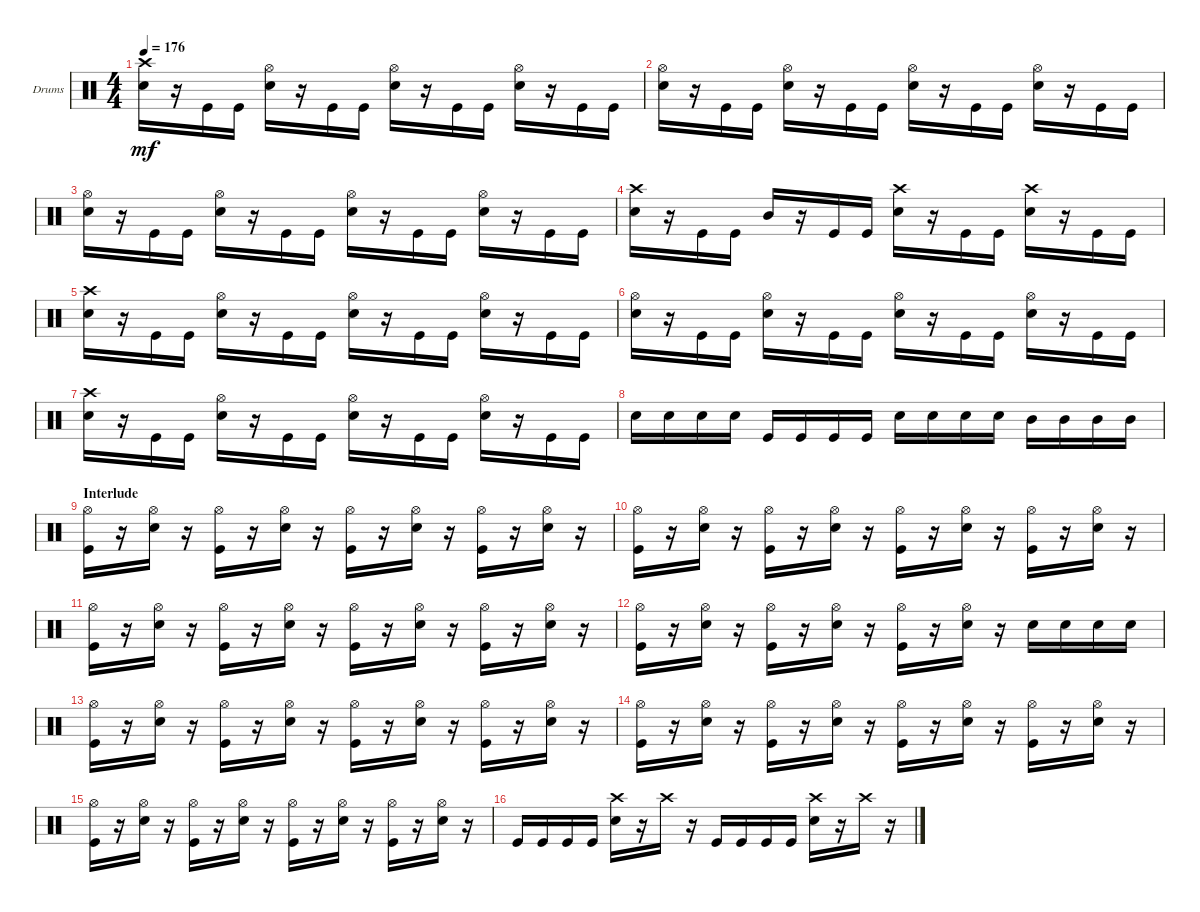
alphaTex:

\bracketExtendMode groupsimilarinstruments
\firstSystemTrackNameOrientation horizontal
\otherSystemsTrackNameOrientation horizontal
\track ("Drums" "Drums") {instrument percussion}
\staff {score}
\articulation defaults
\ts (4 4)
\tempo 176
\clef neutral
\ks c
("Snare (hit) 2" "Crash high (hit)").16{dy mf} r.16 "Kick (hit)".16 "Kick (hit)".16 ("Snare (hit) 2" "Hi-Hat (open)").16 r.16 "Kick (hit)".16 "Kick (hit)".16 ("Snare (hit) 2" "Hi-Hat (open)").16 r.16 "Kick (hit)".16 "Kick (hit)".16 ("Snare (hit) 2" "Hi-Hat (open)").16 r.16 "Kick (hit)".16 "Kick (hit)".16 |
("Snare (hit) 2" "Hi-Hat (open)").16 r.16 "Kick (hit)".16 "Kick (hit)".16 ("Snare (hit) 2" "Hi-Hat (open)").16 r.16 "Kick (hit)".16 "Kick (hit)".16 ("Snare (hit) 2" "Hi-Hat (open)").16 r.16 "Kick (hit)".16 "Kick (hit)".16 ("Snare (hit) 2" "Hi-Hat (open)").16 r.16 "Kick (hit)".16 "Kick (hit)".16 |
("Snare (hit) 2" "Hi-Hat (open)").16 r.16 "Kick (hit)".16 "Kick (hit)".16 ("Snare (hit) 2" "Hi-Hat (open)").16 r.16 "Kick (hit)".16 "Kick (hit)".16 ("Snare (hit) 2" "Hi-Hat (open)").16 r.16 "Kick (hit)".16 "Kick (hit)".16 ("Snare (hit) 2" "Hi-Hat (open)").16 r.16 "Kick (hit)".16 "Kick (hit)".16 |
("Snare (hit) 2" "Crash high (hit)").16 r.16 "Kick (hit)".16 "Kick (hit)".16 "Mid Tom (hit)".16 r.16 "Kick (hit)".16 "Kick (hit)".16 ("Snare (hit) 2" "Crash high (hit)").16 r.16 "Kick (hit)".16 "Kick (hit)".16 ("Snare (hit) 2" "Crash high (hit)").16 r.16 "Kick (hit)".16 "Kick (hit)".16 |
("Snare (hit) 2" "Crash high (hit)").16 r.16 "Kick (hit)".16 "Kick (hit)".16 ("Snare (hit) 2" "Hi-Hat (open)").16 r.16 "Kick (hit)".16 "Kick (hit)".16 ("Snare (hit) 2" "Hi-Hat (open)").16 r.16 "Kick (hit)".16 "Kick (hit)".16 ("Snare (hit) 2" "Hi-Hat (open)").16 r.16 "Kick (hit)".16 "Kick (hit)".16 |
("Snare (hit) 2" "Hi-Hat (open)").16 r.16 "Kick (hit)".16 "Kick (hit)".16 ("Snare (hit) 2" "Hi-Hat (open)").16 r.16 "Kick (hit)".16 "Kick (hit)".16 ("Snare (hit) 2" "Hi-Hat (open)").16 r.16 "Kick (hit)".16 "Kick (hit)".16 ("Snare (hit) 2" "Hi-Hat (open)").16 r.16 "Kick (hit)".16 "Kick (hit)".16 |
("Snare (hit) 2" "Crash high (hit)").16 r.16 "Kick (hit)".16 "Kick (hit)".16 ("Snare (hit) 2" "Hi-Hat (open)").16 r.16 "Kick (hit)".16 "Kick (hit)".16 ("Snare (hit) 2" "Hi-Hat (open)").16 r.16 "Kick (hit)".16 "Kick (hit)".16 ("Snare (hit) 2" "Hi-Hat (open)").16 r.16 "Kick (hit)".16 "Kick (hit)".16 |
"Snare (hit) 2".16 "Snare (hit) 2".16 "Snare (hit) 2".16 "Snare (hit) 2".16 "Kick (hit)".16 "Kick (hit)".16 "Kick (hit)".16 "Kick (hit)".16 "Snare (hit) 2".16 "Snare (hit) 2".16 "Snare (hit) 2".16 "Snare (hit) 2".16 "Mid Tom (hit)".16 "Mid Tom (hit)".16 "Mid Tom (hit)".16 "Mid Tom (hit)".16 |
\section ("" "Interlude")
("Kick (hit)" "Hi-Hat (open)").16 r.16 ("Hi-Hat (open)" "Snare (hit) 2").16 r.16 ("Hi-Hat (open)" "Kick (hit)").16 r.16 ("Hi-Hat (open)" "Snare (hit) 2").16 r.16 ("Hi-Hat (open)" "Kick (hit)").16 r.16 ("Hi-Hat (open)" "Snare (hit) 2").16 r.16 ("Hi-Hat (open)" "Kick (hit)").16 r.16 ("Hi-Hat (open)" "Snare (hit) 2").16 r.16 |
("Kick (hit)" "Hi-Hat (open)").16 r.16 ("Hi-Hat (open)" "Snare (hit) 2").16 r.16 ("Hi-Hat (open)" "Kick (hit)").16 r.16 ("Hi-Hat (open)" "Snare (hit) 2").16 r.16 ("Hi-Hat (open)" "Kick (hit)").16 r.16 ("Hi-Hat (open)" "Snare (hit) 2").16 r.16 ("Hi-Hat (open)" "Kick (hit)").16 r.16 ("Hi-Hat (open)" "Snare (hit) 2").16 r.16 |
("Kick (hit)" "Hi-Hat (open)").16 r.16 ("Hi-Hat (open)" "Snare (hit) 2").16 r.16 ("Hi-Hat (open)" "Kick (hit)").16 r.16 ("Hi-Hat (open)" "Snare (hit) 2").16 r.16 ("Hi-Hat (open)" "Kick (hit)").16 r.16 ("Hi-Hat (open)" "Snare (hit) 2").16 r.16 ("Hi-Hat (open)" "Kick (hit)").16 r.16 ("Hi-Hat (open)" "Snare (hit) 2").16 r.16 |
("Kick (hit)" "Hi-Hat (open)").16 r.16 ("Hi-Hat (open)" "Snare (hit) 2").16 r.16 ("Hi-Hat (open)" "Kick (hit)").16 r.16 ("Hi-Hat (open)" "Snare (hit) 2").16 r.16 ("Hi-Hat (open)" "Kick (hit)").16 r.16 ("Hi-Hat (open)" "Snare (hit) 2").16 r.16 "Snare (hit) 2".16 "Snare (hit) 2".16 "Snare (hit) 2".16 "Snare (hit) 2".16 |
("Kick (hit)" "Hi-Hat (open)").16 r.16 ("Hi-Hat (open)" "Snare (hit) 2").16 r.16 ("Hi-Hat (open)" "Kick (hit)").16 r.16 ("Hi-Hat (open)" "Snare (hit) 2").16 r.16 ("Hi-Hat (open)" "Kick (hit)").16 r.16 ("Hi-Hat (open)" "Snare (hit) 2").16 r.16 ("Hi-Hat (open)" "Kick (hit)").16 r.16 ("Hi-Hat (open)" "Snare (hit) 2").16 r.16 |
("Kick (hit)" "Hi-Hat (open)").16 r.16 ("Hi-Hat (open)" "Snare (hit) 2").16 r.16 ("Hi-Hat (open)" "Kick (hit)").16 r.16 ("Hi-Hat (open)" "Snare (hit) 2").16 r.16 ("Hi-Hat (open)" "Kick (hit)").16 r.16 ("Hi-Hat (open)" "Snare (hit) 2").16 r.16 ("Hi-Hat (open)" "Kick (hit)").16 r.16 ("Hi-Hat (open)" "Snare (hit) 2").16 r.16 |
("Kick (hit)" "Hi-Hat (open)").16 r.16 ("Hi-Hat (open)" "Snare (hit) 2").16 r.16 ("Hi-Hat (open)" "Kick (hit)").16 r.16 ("Hi-Hat (open)" "Snare (hit) 2").16 r.16 ("Hi-Hat (open)" "Kick (hit)").16 r.16 ("Hi-Hat (open)" "Snare (hit) 2").16 r.16 ("Hi-Hat (open)" "Kick (hit)").16 r.16 ("Hi-Hat (open)" "Snare (hit) 2").16 r.16 |
"Kick (hit)".16 "Kick (hit)".16 "Kick (hit)".16 "Kick (hit)".16 ("Snare (hit) 2" "Crash high (hit)").16 r.16 "Crash high (hit)".16 r.16 "Kick (hit)".16 "Kick (hit)".16 "Kick (hit)".16 "Kick (hit)".16 ("Crash high (hit)" "Snare (hit) 2").16 r.16 "Crash high (hit)".16 r.16
